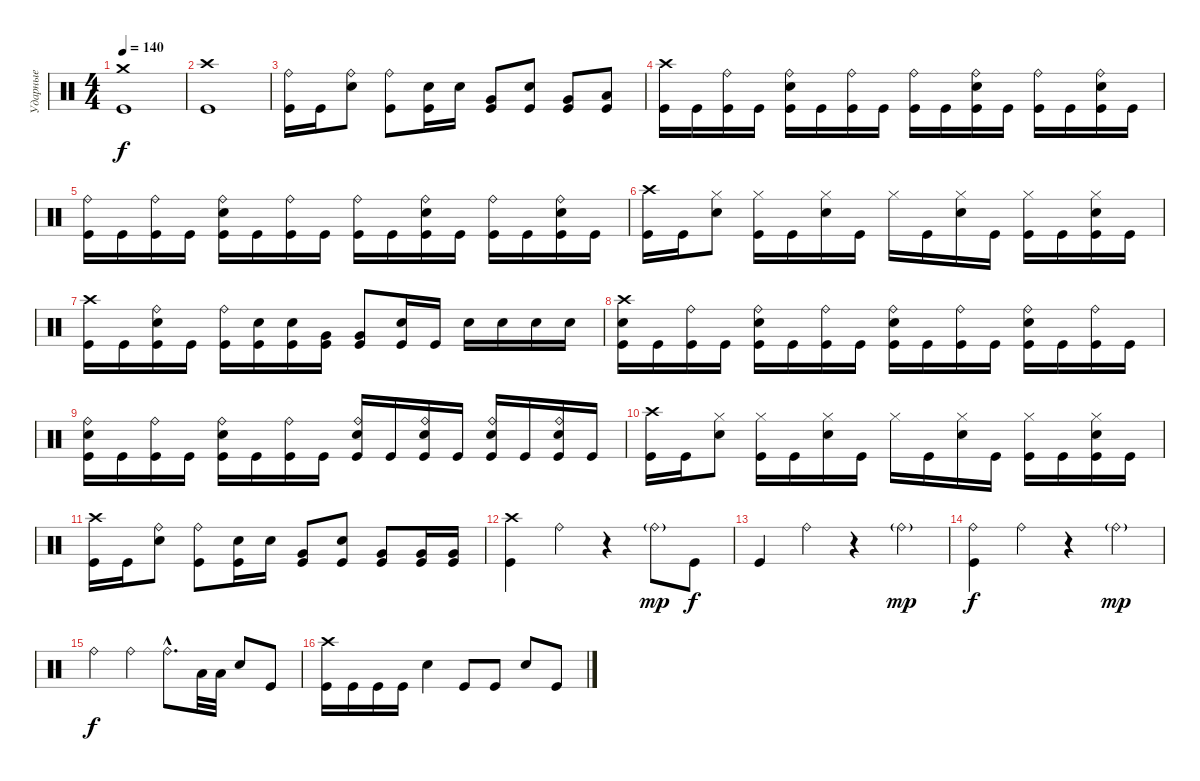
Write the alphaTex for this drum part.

\track ("Ударные" "Ударные") {instrument percussion}
\staff {score}
\articulation defaults
\ts (4 4)
\tempo 140
\clef neutral
\ks c
("Crash medium (hit)" "Kick (hit)").1{dy f} |
("Crash high (hit)" "Kick (hit)").1 |
("Ride (bell)" "Kick (hit)").16 "Kick (hit)".16 ("Ride (bell)" "Electric Snare (hit)").8 ("Ride (bell)" "Kick (hit)").8 ("Electric Snare (hit)" "Kick (hit)").16 "Electric Snare (hit)".16 ("Very Low Tom (hit)" "Kick (hit)").8 ("Electric Snare (hit)" "Kick (hit)").8 ("Very Low Tom (hit)" "Kick (hit)").8 ("Low Tom (hit)" "Kick (hit)").8 |
("Crash high (hit)" "Kick (hit)").16 "Kick (hit)".16 ("Ride (bell)" "Kick (hit)").16 "Kick (hit)".16 ("Ride (bell)" "Electric Snare (hit)" "Kick (hit)").16 "Kick (hit)".16 ("Ride (bell)" "Kick (hit)").16 "Kick (hit)".16 ("Ride (bell)" "Kick (hit)").16 "Kick (hit)".16 ("Ride (bell)" "Electric Snare (hit)" "Kick (hit)").16 "Kick (hit)".16 ("Ride (bell)" "Kick (hit)").16 "Kick (hit)".16 ("Ride (bell)" "Electric Snare (hit)" "Kick (hit)").16 "Kick (hit)".16 |
("Ride (bell)" "Kick (hit)").16 "Kick (hit)".16 ("Ride (bell)" "Kick (hit)").16 "Kick (hit)".16 ("Ride (bell)" "Electric Snare (hit)" "Kick (hit)").16 "Kick (hit)".16 ("Ride (bell)" "Kick (hit)").16 "Kick (hit)".16 ("Ride (bell)" "Kick (hit)").16 "Kick (hit)".16 ("Ride (bell)" "Electric Snare (hit)" "Kick (hit)").16 "Kick (hit)".16 ("Ride (bell)" "Kick (hit)").16 "Kick (hit)".16 ("Ride (bell)" "Electric Snare (hit)" "Kick (hit)").16 "Kick (hit)".16 |
("Crash high (hit)" "Kick (hit)").16 "Kick (hit)".16 ("Hi-Hat (closed)" "Electric Snare (hit)").8 ("Hi-Hat (closed)" "Kick (hit)").16 "Kick (hit)".16 ("Hi-Hat (closed)" "Electric Snare (hit)").16 "Kick (hit)".16 "Hi-Hat (closed)".16 "Kick (hit)".16 ("Hi-Hat (closed)" "Electric Snare (hit)").16 "Kick (hit)".16 ("Hi-Hat (closed)" "Kick (hit)").16 "Kick (hit)".16 ("Hi-Hat (closed)" "Electric Snare (hit)" "Kick (hit)").16 "Kick (hit)".16 |
("Crash high (hit)" "Kick (hit)").16 "Kick (hit)".16 ("Ride (bell)" "Electric Snare (hit)" "Kick (hit)").16 "Kick (hit)".16 ("Ride (bell)" "Kick (hit)").16 ("Electric Snare (hit)" "Kick (hit)").16 ("Electric Snare (hit)" "Kick (hit)").16 ("Very Low Tom (hit)" "Kick (hit)").16 ("Very Low Tom (hit)" "Kick (hit)").8 ("Electric Snare (hit)" "Kick (hit)").16 "Kick (hit)".16 "Electric Snare (hit)".16 "Electric Snare (hit)".16 "Electric Snare (hit)".16 "Electric Snare (hit)".16 |
("Crash high (hit)" "Electric Snare (hit)" "Kick (hit)").16 "Kick (hit)".16 ("Ride (bell)" "Kick (hit)").16 "Kick (hit)".16 ("Ride (bell)" "Electric Snare (hit)" "Kick (hit)").16 "Kick (hit)".16 ("Ride (bell)" "Kick (hit)").16 "Kick (hit)".16 ("Ride (bell)" "Electric Snare (hit)" "Kick (hit)").16 "Kick (hit)".16 ("Ride (bell)" "Kick (hit)").16 "Kick (hit)".16 ("Ride (bell)" "Electric Snare (hit)" "Kick (hit)").16 "Kick (hit)".16 ("Ride (bell)" "Kick (hit)").16 "Kick (hit)".16 |
("Ride (bell)" "Electric Snare (hit)" "Kick (hit)").16 "Kick (hit)".16 ("Ride (bell)" "Kick (hit)").16 "Kick (hit)".16 ("Ride (bell)" "Electric Snare (hit)" "Kick (hit)").16 "Kick (hit)".16 ("Ride (bell)" "Kick (hit)").16 "Kick (hit)".16 ("Ride (bell)" "Electric Snare (hit)" "Kick (hit)").16 "Kick (hit)".16 ("Ride (bell)" "Electric Snare (hit)" "Kick (hit)").16 "Kick (hit)".16 ("Ride (bell)" "Electric Snare (hit)" "Kick (hit)").16 "Kick (hit)".16 ("Ride (bell)" "Electric Snare (hit)" "Kick (hit)").16 "Kick (hit)".16 |
("Crash high (hit)" "Kick (hit)").16 "Kick (hit)".16 ("Hi-Hat (closed)" "Electric Snare (hit)").8 ("Hi-Hat (closed)" "Kick (hit)").16 "Kick (hit)".16 ("Hi-Hat (closed)" "Electric Snare (hit)").16 "Kick (hit)".16 "Hi-Hat (closed)".16 "Kick (hit)".16 ("Hi-Hat (closed)" "Electric Snare (hit)").16 "Kick (hit)".16 ("Hi-Hat (closed)" "Kick (hit)").16 "Kick (hit)".16 ("Hi-Hat (closed)" "Electric Snare (hit)" "Kick (hit)").16 "Kick (hit)".16 |
("Crash high (hit)" "Kick (hit)").16 "Kick (hit)".16 ("Ride (bell)" "Electric Snare (hit)").8 ("Ride (bell)" "Kick (hit)").8 ("Electric Snare (hit)" "Kick (hit)").16 "Electric Snare (hit)".16 ("Very Low Tom (hit)" "Kick (hit)").8 ("Electric Snare (hit)" "Kick (hit)").8 ("Very Low Tom (hit)" "Kick (hit)").8 ("Very Low Tom (hit)" "Kick (hit)").16 ("Very Low Tom (hit)" "Kick (hit)").16 |
("Crash high (hit)" "Kick (hit)").4 "Ride (bell)".4 r.4 "Ride (bell)"{g}.8{dy mp} "Kick (hit)".8{dy f} |
"Kick (hit)".4 "Ride (bell)".4 r.4 "Ride (bell)"{g}.4{dy mp} |
("Ride (bell)" "Kick (hit)").4{dy f} "Ride (bell)".4 r.4 "Ride (bell)"{g}.4{dy mp} |
"Ride (bell)".4{dy f} "Ride (bell)".4 "Ride (bell)"{hac}.8{d} "Low Tom (hit)".32 "Low Tom (hit)".32 "Electric Snare (hit)".8 "Kick (hit)".8 |
("Crash high (hit)" "Kick (hit)").16 "Kick (hit)".16 "Kick (hit)".16 "Kick (hit)".16 "Electric Snare (hit)".4 "Kick (hit)".8 "Kick (hit)".8 "Electric Snare (hit)".8 "Kick (hit)".8
